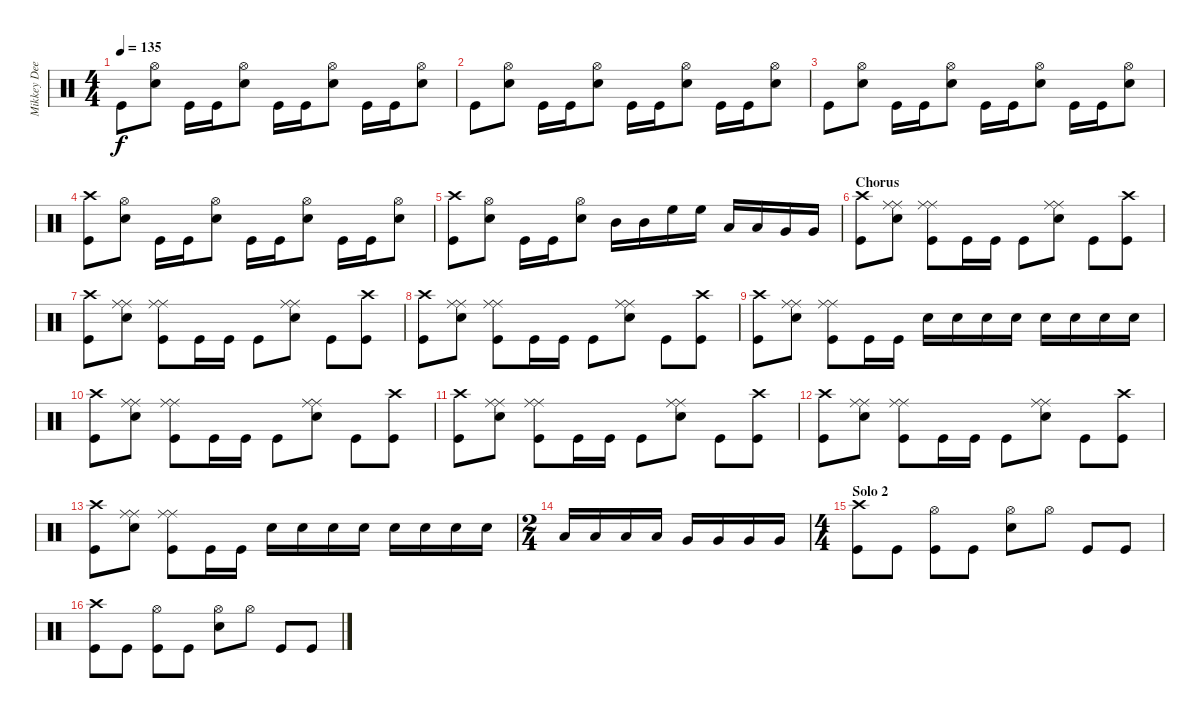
\track ("Mikkey Dee - Drums" "Mikkey Dee") {instrument percussion}
\staff {score}
\articulation defaults
\ts (4 4)
\tempo 135
\clef neutral
\ks c "Kick (hit)".8{dy f}
("Snare (hit) 2" "Hi-Hat (open)").8 "Kick (hit)".16 "Kick (hit)".16 ("Snare (hit) 2" "Hi-Hat (open)").8 "Kick (hit)".16 "Kick (hit)".16 ("Snare (hit) 2" "Hi-Hat (open)").8 "Kick (hit)".16 "Kick (hit)".16 ("Snare (hit) 2" "Hi-Hat (open)").8 |
"Kick (hit)".8 ("Snare (hit) 2" "Hi-Hat (open)").8 "Kick (hit)".16 "Kick (hit)".16 ("Snare (hit) 2" "Hi-Hat (open)").8 "Kick (hit)".16 "Kick (hit)".16 ("Snare (hit) 2" "Hi-Hat (open)").8 "Kick (hit)".16 "Kick (hit)".16 ("Snare (hit) 2" "Hi-Hat (open)").8 |
"Kick (hit)".8 ("Snare (hit) 2" "Hi-Hat (open)").8 "Kick (hit)".16 "Kick (hit)".16 ("Snare (hit) 2" "Hi-Hat (open)").8 "Kick (hit)".16 "Kick (hit)".16 ("Snare (hit) 2" "Hi-Hat (open)").8 "Kick (hit)".16 "Kick (hit)".16 ("Snare (hit) 2" "Hi-Hat (open)").8 |
("Crash high (hit)" "Kick (hit)").8 ("Snare (hit) 2" "Hi-Hat (open)").8 "Kick (hit)".16 "Kick (hit)".16 ("Snare (hit) 2" "Hi-Hat (open)").8 "Kick (hit)".16 "Kick (hit)".16 ("Snare (hit) 2" "Hi-Hat (open)").8 "Kick (hit)".16 "Kick (hit)".16 ("Snare (hit) 2" "Hi-Hat (open)").8 |
("Crash high (hit)" "Kick (hit)").8 ("Snare (hit) 2" "Hi-Hat (open)").8 "Kick (hit)".16 "Kick (hit)".16 ("Snare (hit) 2" "Hi-Hat (open)").8 "Mid Tom (hit)".16 "Mid Tom (hit)".16 "High Floor Tom (hit)".16 "High Floor Tom (hit)".16 "Low Tom (hit)".16 "Low Tom (hit)".16 "Very Low Tom (hit)".16 "Very Low Tom (hit)".16 |
\section ("" "Chorus")
("Crash high (hit)" "Kick (hit)").8 ("Ride (middle)" "Ride (middle)" "Snare (hit) 2").8 ("Ride (middle)" "Ride (middle)" "Kick (hit)").8 "Kick (hit)".16 "Kick (hit)".16 "Kick (hit)".8 ("Ride (middle)" "Ride (middle)" "Snare (hit) 2").8 "Kick (hit)".8 ("Crash high (hit)" "Kick (hit)").8 |
("Crash high (hit)" "Kick (hit)").8 ("Ride (middle)" "Ride (middle)" "Snare (hit) 2").8 ("Ride (middle)" "Ride (middle)" "Kick (hit)").8 "Kick (hit)".16 "Kick (hit)".16 "Kick (hit)".8 ("Ride (middle)" "Ride (middle)" "Snare (hit) 2").8 "Kick (hit)".8 ("Crash high (hit)" "Kick (hit)").8 |
("Crash high (hit)" "Kick (hit)").8 ("Ride (middle)" "Ride (middle)" "Snare (hit) 2").8 ("Ride (middle)" "Ride (middle)" "Kick (hit)").8 "Kick (hit)".16 "Kick (hit)".16 "Kick (hit)".8 ("Ride (middle)" "Ride (middle)" "Snare (hit) 2").8 "Kick (hit)".8 ("Crash high (hit)" "Kick (hit)").8 |
("Crash high (hit)" "Kick (hit)").8 ("Ride (middle)" "Ride (middle)" "Snare (hit) 2").8 ("Ride (middle)" "Ride (middle)" "Kick (hit)").8 "Kick (hit)".16 "Kick (hit)".16 "Snare (hit) 2".16 "Snare (hit) 2".16 "Snare (hit) 2".16 "Snare (hit) 2".16 "Snare (hit) 2".16 "Snare (hit) 2".16 "Snare (hit) 2".16 "Snare (hit) 2".16 |
("Crash high (hit)" "Kick (hit)").8 ("Ride (middle)" "Ride (middle)" "Snare (hit) 2").8 ("Ride (middle)" "Ride (middle)" "Kick (hit)").8 "Kick (hit)".16 "Kick (hit)".16 "Kick (hit)".8 ("Ride (middle)" "Ride (middle)" "Snare (hit) 2").8 "Kick (hit)".8 ("Crash high (hit)" "Kick (hit)").8 |
("Crash high (hit)" "Kick (hit)").8 ("Ride (middle)" "Ride (middle)" "Snare (hit) 2").8 ("Ride (middle)" "Ride (middle)" "Kick (hit)").8 "Kick (hit)".16 "Kick (hit)".16 "Kick (hit)".8 ("Ride (middle)" "Ride (middle)" "Snare (hit) 2").8 "Kick (hit)".8 ("Crash high (hit)" "Kick (hit)").8 |
("Crash high (hit)" "Kick (hit)").8 ("Ride (middle)" "Ride (middle)" "Snare (hit) 2").8 ("Ride (middle)" "Ride (middle)" "Kick (hit)").8 "Kick (hit)".16 "Kick (hit)".16 "Kick (hit)".8 ("Ride (middle)" "Ride (middle)" "Snare (hit) 2").8 "Kick (hit)".8 ("Crash high (hit)" "Kick (hit)").8 |
("Crash high (hit)" "Kick (hit)").8 ("Ride (middle)" "Ride (middle)" "Snare (hit) 2").8 ("Ride (middle)" "Ride (middle)" "Kick (hit)").8 "Kick (hit)".16 "Kick (hit)".16 "Snare (hit) 2".16 "Snare (hit) 2".16 "Snare (hit) 2".16 "Snare (hit) 2".16 "Snare (hit) 2".16 "Snare (hit) 2".16 "Snare (hit) 2".16 "Snare (hit) 2".16 |
\ts (2 4)
"Low Tom (hit)".16 "Low Tom (hit)".16 "Low Tom (hit)".16 "Low Tom (hit)".16 "Very Low Tom (hit)".16 "Very Low Tom (hit)".16 "Very Low Tom (hit)".16 "Very Low Tom (hit)".16 |
\ts (4 4)
\section ("" "Solo 2")
("Crash high (hit)" "Kick (hit)").8 "Kick (hit)".8 ("Hi-Hat (open)" "Kick (hit)").8 "Kick (hit)".8 ("Hi-Hat (open)" "Snare (hit) 2").8 "Hi-Hat (open)".8 "Kick (hit)".8 "Kick (hit)".8 |
("Crash high (hit)" "Kick (hit)").8 "Kick (hit)".8 ("Hi-Hat (open)" "Kick (hit)").8 "Kick (hit)".8 ("Hi-Hat (open)" "Snare (hit) 2").8 "Hi-Hat (open)".8 "Kick (hit)".8 "Kick (hit)".8
